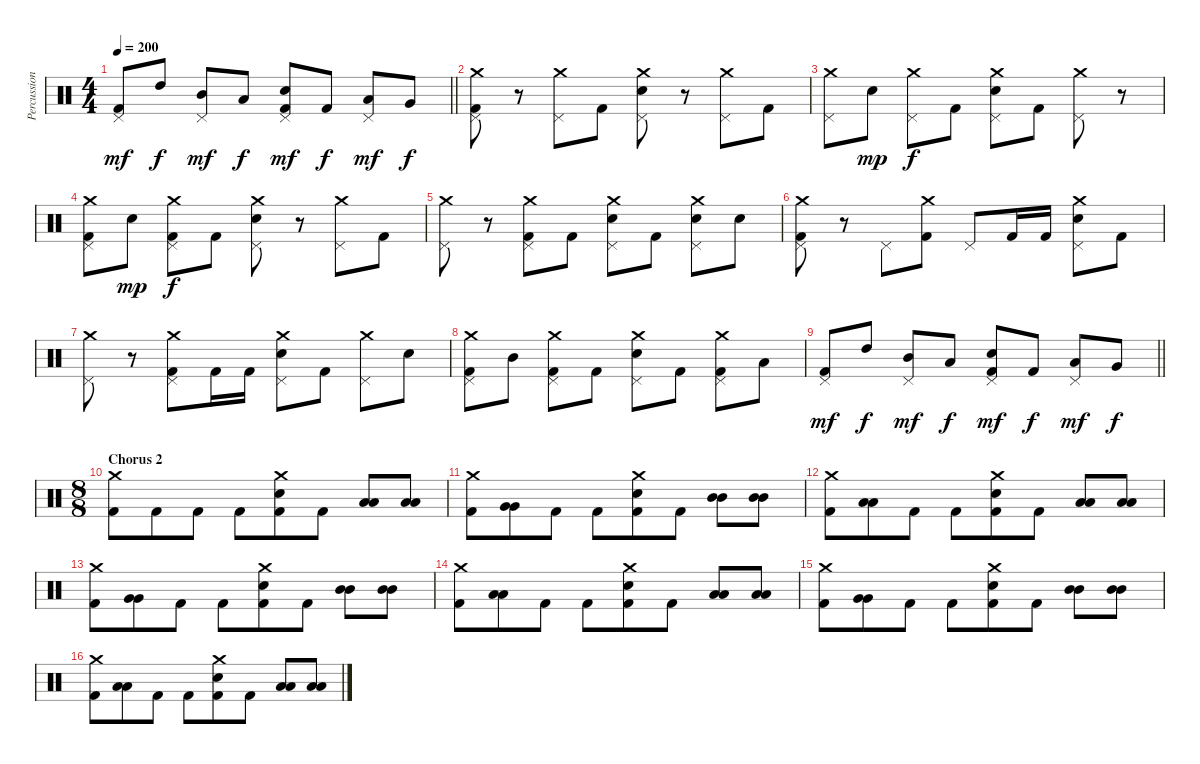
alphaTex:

\track ("Percussions" "Percussion") {instrument percussion}
\staff {score}
\articulation defaults
\ts (4 4)
\tempo 200
\clef neutral
\barLineRight lightlight
\ks c
("Pedal Hi-Hat (hit)" "Kick (hit) 2").8{dy mf} "High Tom (hit)".8{dy f} ("Pedal Hi-Hat (hit)" "Mid Tom (hit)").8{dy mf} "Low Tom (hit)".8{dy f} ("Pedal Hi-Hat (hit)" "Electric Snare (hit)" "Kick (hit) 2").8{dy mf} "Kick (hit) 2".8{dy f} ("Pedal Hi-Hat (hit)" "Low Tom (hit)").8{dy mf} "Very Low Tom (hit)".8{dy f} |
("Crash medium (hit)" "Pedal Hi-Hat (hit)" "Kick (hit) 2").8 r.8 ("Crash medium (hit)" "Pedal Hi-Hat (hit)").8 "Kick (hit) 2".8 ("Crash medium (hit)" "Pedal Hi-Hat (hit)" "Electric Snare (hit)").8 r.8 ("Crash medium (hit)" "Pedal Hi-Hat (hit)").8 "Kick (hit) 2".8 |
("Crash medium (hit)" "Pedal Hi-Hat (hit)").8 "Electric Snare (hit)".8{dy mp} ("Crash medium (hit)" "Pedal Hi-Hat (hit)").8{dy f} "Kick (hit) 2".8 ("Crash medium (hit)" "Pedal Hi-Hat (hit)" "Electric Snare (hit)").8 "Kick (hit) 2".8 ("Crash medium (hit)" "Pedal Hi-Hat (hit)").8 r.8 |
("Crash medium (hit)" "Pedal Hi-Hat (hit)" "Kick (hit) 2").8 "Electric Snare (hit)".8{dy mp} ("Crash medium (hit)" "Pedal Hi-Hat (hit)" "Kick (hit) 2").8{dy f} "Kick (hit) 2".8 ("Crash medium (hit)" "Pedal Hi-Hat (hit)" "Electric Snare (hit)").8 r.8 ("Crash medium (hit)" "Pedal Hi-Hat (hit)").8 "Kick (hit) 2".8 |
("Crash medium (hit)" "Pedal Hi-Hat (hit)").8 r.8 ("Crash medium (hit)" "Pedal Hi-Hat (hit)" "Kick (hit) 2").8 "Kick (hit) 2".8 ("Crash medium (hit)" "Pedal Hi-Hat (hit)" "Electric Snare (hit)").8 "Kick (hit) 2".8 ("Crash medium (hit)" "Pedal Hi-Hat (hit)" "Electric Snare (hit)").8 "Electric Snare (hit)".8 |
("Crash medium (hit)" "Pedal Hi-Hat (hit)" "Kick (hit) 2").8 r.8 "Pedal Hi-Hat (hit)".8 ("Crash medium (hit)" "Kick (hit) 2").8 "Pedal Hi-Hat (hit)".8 "Kick (hit) 2".16 "Kick (hit) 2".16 ("Crash medium (hit)" "Pedal Hi-Hat (hit)" "Electric Snare (hit)").8 "Kick (hit) 2".8 |
("Crash medium (hit)" "Pedal Hi-Hat (hit)").8 r.8 ("Crash medium (hit)" "Pedal Hi-Hat (hit)" "Kick (hit) 2").8 "Kick (hit) 2".16 "Kick (hit) 2".16 ("Crash medium (hit)" "Pedal Hi-Hat (hit)" "Electric Snare (hit)").8 "Kick (hit) 2".8 ("Crash medium (hit)" "Pedal Hi-Hat (hit)").8 "Electric Snare (hit)".8 |
("Crash medium (hit)" "Pedal Hi-Hat (hit)" "Kick (hit) 2").8 "Mid Tom (hit)".8 ("Crash medium (hit)" "Pedal Hi-Hat (hit)" "Kick (hit) 2").8 "Kick (hit) 2".8 ("Crash medium (hit)" "Pedal Hi-Hat (hit)" "Electric Snare (hit)").8 "Kick (hit) 2".8 ("Crash medium (hit)" "Pedal Hi-Hat (hit)" "Kick (hit) 2").8 "Low Tom (hit)".8 |
\barLineRight lightlight
("Pedal Hi-Hat (hit)" "Kick (hit) 2").8{dy mf} "High Tom (hit)".8{dy f} ("Pedal Hi-Hat (hit)" "Mid Tom (hit)").8{dy mf} "Low Tom (hit)".8{dy f} ("Pedal Hi-Hat (hit)" "Electric Snare (hit)" "Kick (hit) 2").8{dy mf} "Kick (hit) 2".8{dy f} ("Pedal Hi-Hat (hit)" "Low Tom (hit)").8{dy mf} "Very Low Tom (hit)".8{dy f} |
\ts (8 8)
\section ("" "Chorus 2")
("Crash medium (hit)" "Kick (hit) 2").8 "Kick (hit) 2".8 "Kick (hit) 2".8 "Kick (hit) 2".8 ("Crash medium (hit)" "Electric Snare (hit)" "Kick (hit) 2").8 "Kick (hit) 2".8 ("Low Tom (hit)" "Low Tom (hit)").8 ("Low Tom (hit)" "Low Tom (hit)").8 |
("Crash medium (hit)" "Kick (hit) 2").8 ("Very Low Tom (hit)" "Very Low Tom (hit)").8 "Kick (hit) 2".8 "Kick (hit) 2".8 ("Crash medium (hit)" "Electric Snare (hit)" "Kick (hit) 2").8 "Kick (hit) 2".8 ("Mid Tom (hit)" "Mid Tom (hit)").8 ("Mid Tom (hit)" "Mid Tom (hit)").8 |
("Crash medium (hit)" "Kick (hit) 2").8 ("Low Tom (hit)" "Low Tom (hit)").8 "Kick (hit) 2".8 "Kick (hit) 2".8 ("Crash medium (hit)" "Electric Snare (hit)" "Kick (hit) 2").8 "Kick (hit) 2".8 ("Low Tom (hit)" "Low Tom (hit)").8 ("Low Tom (hit)" "Low Tom (hit)").8 |
("Crash medium (hit)" "Kick (hit) 2").8 ("Very Low Tom (hit)" "Very Low Tom (hit)").8 "Kick (hit) 2".8 "Kick (hit) 2".8 ("Crash medium (hit)" "Electric Snare (hit)" "Kick (hit) 2").8 "Kick (hit) 2".8 ("Mid Tom (hit)" "Mid Tom (hit)").8 ("Mid Tom (hit)" "Mid Tom (hit)").8 |
("Crash medium (hit)" "Kick (hit) 2").8 ("Low Tom (hit)" "Low Tom (hit)").8 "Kick (hit) 2".8 "Kick (hit) 2".8 ("Crash medium (hit)" "Electric Snare (hit)" "Kick (hit) 2").8 "Kick (hit) 2".8 ("Low Tom (hit)" "Low Tom (hit)").8 ("Low Tom (hit)" "Low Tom (hit)").8 |
("Crash medium (hit)" "Kick (hit) 2").8 ("Very Low Tom (hit)" "Very Low Tom (hit)").8 "Kick (hit) 2".8 "Kick (hit) 2".8 ("Crash medium (hit)" "Electric Snare (hit)" "Kick (hit) 2").8 "Kick (hit) 2".8 ("Mid Tom (hit)" "Mid Tom (hit)").8 ("Mid Tom (hit)" "Mid Tom (hit)").8 |
("Crash medium (hit)" "Kick (hit) 2").8 ("Low Tom (hit)" "Low Tom (hit)").8 "Kick (hit) 2".8 "Kick (hit) 2".8 ("Crash medium (hit)" "Electric Snare (hit)" "Kick (hit) 2").8 "Kick (hit) 2".8 ("Low Tom (hit)" "Low Tom (hit)").8 ("Low Tom (hit)" "Low Tom (hit)").8
